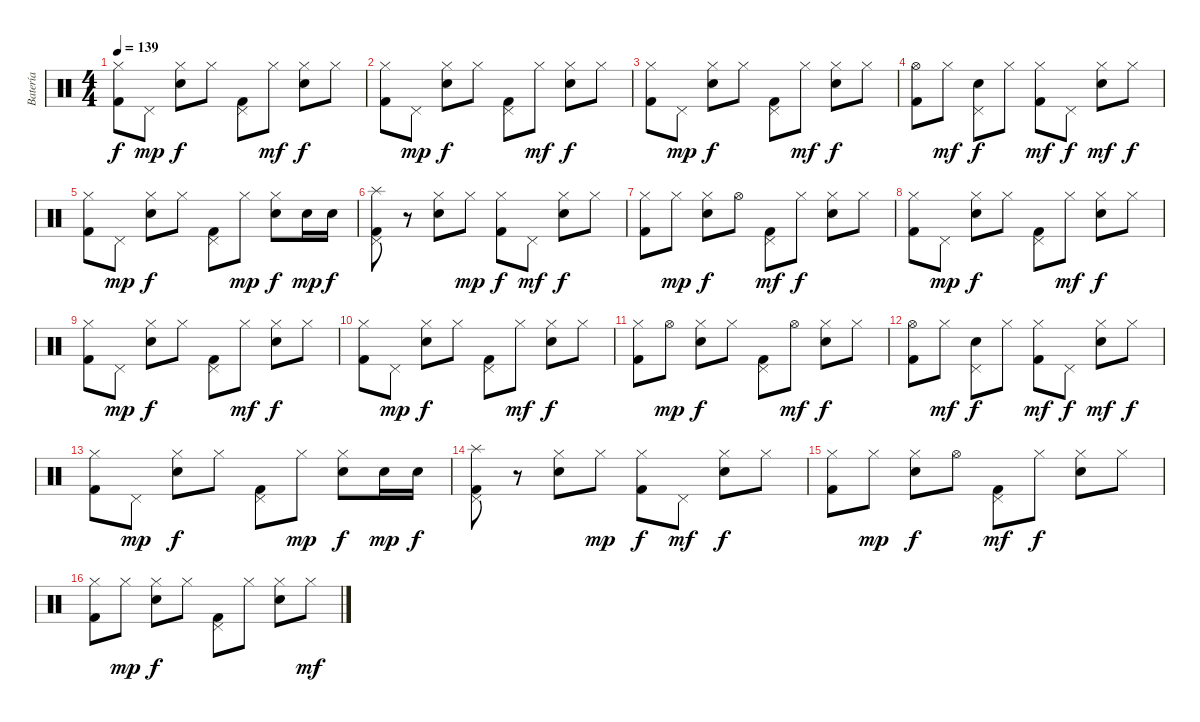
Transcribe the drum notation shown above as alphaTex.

\track ("Batería" "Batería") {instrument percussion}
\staff {score}
\articulation defaults
\ts (4 4)
\tempo 139
\clef neutral
\ks c
("Hi-Hat (closed)" "Kick (hit) 2").8{dy f} "Pedal Hi-Hat (hit)".8{dy mp} ("Hi-Hat (closed)" "Snare (hit) 2").8{dy f} "Hi-Hat (closed)".8 ("Pedal Hi-Hat (hit)" "Kick (hit) 2").8 "Hi-Hat (closed)".8{dy mf} ("Hi-Hat (closed)" "Snare (hit) 2").8{dy f} "Hi-Hat (closed)".8 |
("Hi-Hat (closed)" "Kick (hit) 2").8 "Pedal Hi-Hat (hit)".8{dy mp} ("Hi-Hat (closed)" "Snare (hit) 2").8{dy f} "Hi-Hat (closed)".8 ("Pedal Hi-Hat (hit)" "Kick (hit) 2").8 "Hi-Hat (closed)".8{dy mf} ("Hi-Hat (closed)" "Snare (hit) 2").8{dy f} "Hi-Hat (closed)".8 |
("Hi-Hat (closed)" "Kick (hit) 2").8 "Pedal Hi-Hat (hit)".8{dy mp} ("Hi-Hat (closed)" "Snare (hit) 2").8{dy f} "Hi-Hat (closed)".8 ("Pedal Hi-Hat (hit)" "Kick (hit) 2").8 "Hi-Hat (closed)".8{dy mf} ("Hi-Hat (closed)" "Snare (hit) 2").8{dy f} "Hi-Hat (closed)".8 |
("Hi-Hat (open)" "Kick (hit) 2").8 "Hi-Hat (closed)".8{dy mf} ("Pedal Hi-Hat (hit)" "Snare (hit) 2").8{dy f} "Hi-Hat (closed)".8 ("Hi-Hat (closed)" "Kick (hit) 2").8{dy mf} "Pedal Hi-Hat (hit)".8{dy f} ("Hi-Hat (closed)" "Snare (hit) 2").8{dy mf} "Hi-Hat (closed)".8{dy f} |
("Hi-Hat (closed)" "Kick (hit) 2").8 "Pedal Hi-Hat (hit)".8{dy mp} ("Hi-Hat (closed)" "Snare (hit) 2").8{dy f} "Hi-Hat (closed)".8 ("Pedal Hi-Hat (hit)" "Kick (hit) 2").8 "Hi-Hat (closed)".8{dy mp} ("Hi-Hat (closed)" "Snare (hit) 2").8{dy f} "Snare (hit) 2".16{dy mp} "Snare (hit) 2".16{dy f} |
("Splash (hit)" "Pedal Hi-Hat (hit)" "Kick (hit) 2").8 r.8 ("Hi-Hat (closed)" "Snare (hit) 2").8 "Hi-Hat (closed)".8{dy mp} ("Hi-Hat (closed)" "Kick (hit) 2").8{dy f} "Pedal Hi-Hat (hit)".8{dy mf} ("Hi-Hat (closed)" "Snare (hit) 2").8{dy f} "Hi-Hat (closed)".8 |
("Hi-Hat (closed)" "Kick (hit) 2").8 "Hi-Hat (closed)".8{dy mp} ("Hi-Hat (closed)" "Snare (hit) 2").8{dy f} "Hi-Hat (open)".8 ("Pedal Hi-Hat (hit)" "Kick (hit) 2").8{dy mf} "Hi-Hat (closed)".8{dy f} ("Hi-Hat (closed)" "Snare (hit) 2").8 "Hi-Hat (closed)".8 |
("Hi-Hat (closed)" "Kick (hit) 2").8 "Pedal Hi-Hat (hit)".8{dy mp} ("Hi-Hat (closed)" "Snare (hit) 2").8{dy f} "Hi-Hat (closed)".8 ("Pedal Hi-Hat (hit)" "Kick (hit) 2").8 "Hi-Hat (closed)".8{dy mf} ("Hi-Hat (closed)" "Snare (hit) 2").8{dy f} "Hi-Hat (closed)".8 |
("Hi-Hat (closed)" "Kick (hit) 2").8 "Pedal Hi-Hat (hit)".8{dy mp} ("Hi-Hat (closed)" "Snare (hit) 2").8{dy f} "Hi-Hat (closed)".8 ("Pedal Hi-Hat (hit)" "Kick (hit) 2").8 "Hi-Hat (closed)".8{dy mf} ("Hi-Hat (closed)" "Snare (hit) 2").8{dy f} "Hi-Hat (closed)".8 |
("Hi-Hat (closed)" "Kick (hit) 2").8 "Pedal Hi-Hat (hit)".8{dy mp} ("Hi-Hat (closed)" "Snare (hit) 2").8{dy f} "Hi-Hat (closed)".8 ("Pedal Hi-Hat (hit)" "Kick (hit) 2").8 "Hi-Hat (closed)".8{dy mf} ("Hi-Hat (closed)" "Snare (hit) 2").8{dy f} "Hi-Hat (closed)".8 |
("Hi-Hat (closed)" "Kick (hit) 2").8 "Hi-Hat (open)".8{dy mp} ("Hi-Hat (closed)" "Snare (hit) 2").8{dy f} "Hi-Hat (closed)".8 ("Pedal Hi-Hat (hit)" "Kick (hit) 2").8 "Hi-Hat (open)".8{dy mf} ("Hi-Hat (closed)" "Snare (hit) 2").8{dy f} "Hi-Hat (closed)".8 |
("Hi-Hat (open)" "Kick (hit) 2").8 "Hi-Hat (closed)".8{dy mf} ("Pedal Hi-Hat (hit)" "Snare (hit) 2").8{dy f} "Hi-Hat (closed)".8 ("Hi-Hat (closed)" "Kick (hit) 2").8{dy mf} "Pedal Hi-Hat (hit)".8{dy f} ("Hi-Hat (closed)" "Snare (hit) 2").8{dy mf} "Hi-Hat (closed)".8{dy f} |
("Hi-Hat (closed)" "Kick (hit) 2").8 "Pedal Hi-Hat (hit)".8{dy mp} ("Hi-Hat (closed)" "Snare (hit) 2").8{dy f} "Hi-Hat (closed)".8 ("Pedal Hi-Hat (hit)" "Kick (hit) 2").8 "Hi-Hat (closed)".8{dy mp} ("Hi-Hat (closed)" "Snare (hit) 2").8{dy f} "Snare (hit) 2".16{dy mp} "Snare (hit) 2".16{dy f} |
("Splash (hit)" "Pedal Hi-Hat (hit)" "Kick (hit) 2").8 r.8 ("Hi-Hat (closed)" "Snare (hit) 2").8 "Hi-Hat (closed)".8{dy mp} ("Hi-Hat (closed)" "Kick (hit) 2").8{dy f} "Pedal Hi-Hat (hit)".8{dy mf} ("Hi-Hat (closed)" "Snare (hit) 2").8{dy f} "Hi-Hat (closed)".8 |
("Hi-Hat (closed)" "Kick (hit) 2").8 "Hi-Hat (closed)".8{dy mp} ("Hi-Hat (closed)" "Snare (hit) 2").8{dy f} "Hi-Hat (open)".8 ("Pedal Hi-Hat (hit)" "Kick (hit) 2").8{dy mf} "Hi-Hat (closed)".8{dy f} ("Hi-Hat (closed)" "Snare (hit) 2").8 "Hi-Hat (closed)".8 |
("Hi-Hat (closed)" "Kick (hit) 2").8 "Hi-Hat (closed)".8{dy mp} ("Hi-Hat (closed)" "Snare (hit) 2").8{dy f} "Hi-Hat (closed)".8 ("Pedal Hi-Hat (hit)" "Kick (hit) 2").8 "Hi-Hat (closed)".8 ("Hi-Hat (closed)" "Snare (hit) 2").8 "Hi-Hat (closed)".8{dy mf}
